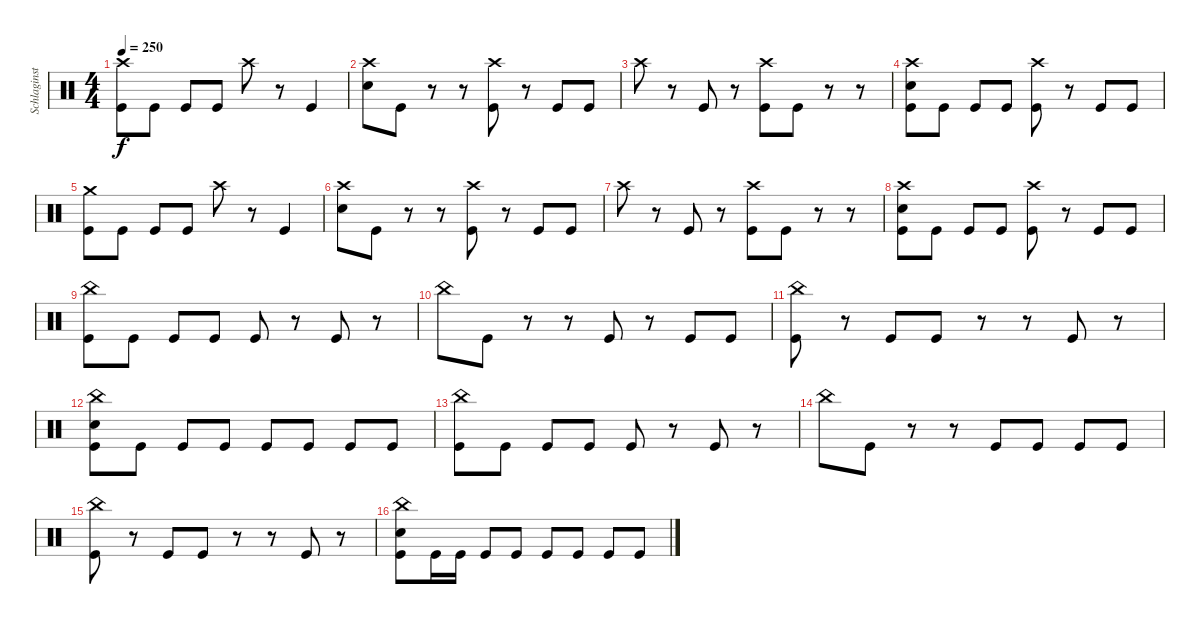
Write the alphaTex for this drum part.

\track ("Schlaginstrumente - Auswahl" "Schlaginst") {instrument percussion}
\staff {score}
\articulation defaults
\ts (4 4)
\tempo 250
\clef neutral
\ks c
("Crash high (hit)" "Kick (hit)").8{dy f} "Kick (hit)".8 "Kick (hit)".8 "Kick (hit)".8 "Crash high (hit)".8 r.8 "Kick (hit)".4 |
("Crash high (hit)" "Electric Snare (hit)").8 "Kick (hit)".8 r.8 r.8 ("Crash high (hit)" "Kick (hit)").8 r.8 "Kick (hit)".8 "Kick (hit)".8 |
"Crash high (hit)".8 r.8 "Kick (hit)".8 r.8 ("Crash high (hit)" "Kick (hit)").8 "Kick (hit)".8 r.8 r.8 |
("Crash high (hit)" "Electric Snare (hit)" "Kick (hit)").8 "Kick (hit)".8 "Kick (hit)".8 "Kick (hit)".8 ("Crash high (hit)" "Kick (hit)").8 r.8 "Kick (hit)".8 "Kick (hit)".8 |
("Crash medium (hit)" "Kick (hit)").8 "Kick (hit)".8 "Kick (hit)".8 "Kick (hit)".8 "Crash high (hit)".8 r.8 "Kick (hit)".4 |
("Crash high (hit)" "Electric Snare (hit)").8 "Kick (hit)".8 r.8 r.8 ("Crash high (hit)" "Kick (hit)").8 r.8 "Kick (hit)".8 "Kick (hit)".8 |
"Crash high (hit)".8 r.8 "Kick (hit)".8 r.8 ("Crash high (hit)" "Kick (hit)").8 "Kick (hit)".8 r.8 r.8 |
("Crash high (hit)" "Electric Snare (hit)" "Kick (hit)").8 "Kick (hit)".8 "Kick (hit)".8 "Kick (hit)".8 ("Crash high (hit)" "Kick (hit)").8 r.8 "Kick (hit)".8 "Kick (hit)".8 |
("China (hit)" "Kick (hit)").8 "Kick (hit)".8 "Kick (hit)".8 "Kick (hit)".8 "Kick (hit)".8 r.8 "Kick (hit)".8 r.8 |
"China (hit)".8 "Kick (hit)".8 r.8 r.8 "Kick (hit)".8 r.8 "Kick (hit)".8 "Kick (hit)".8 |
("China (hit)" "Kick (hit)").8 r.8 "Kick (hit)".8 "Kick (hit)".8 r.8 r.8 "Kick (hit)".8 r.8 |
("China (hit)" "Electric Snare (hit)" "Kick (hit)").8 "Kick (hit)".8 "Kick (hit)".8 "Kick (hit)".8 "Kick (hit)".8 "Kick (hit)".8 "Kick (hit)".8 "Kick (hit)".8 |
("China (hit)" "Kick (hit)").8 "Kick (hit)".8 "Kick (hit)".8 "Kick (hit)".8 "Kick (hit)".8 r.8 "Kick (hit)".8 r.8 |
"China (hit)".8 "Kick (hit)".8 r.8 r.8 "Kick (hit)".8 "Kick (hit)".8 "Kick (hit)".8 "Kick (hit)".8 |
("China (hit)" "Kick (hit)").8 r.8 "Kick (hit)".8 "Kick (hit)".8 r.8 r.8 "Kick (hit)".8 r.8 |
("China (hit)" "Electric Snare (hit)" "Kick (hit)").8 "Kick (hit)".16 "Kick (hit)".16 "Kick (hit)".8 "Kick (hit)".8 "Kick (hit)".8 "Kick (hit)".8 "Kick (hit)".8 "Kick (hit)".8
